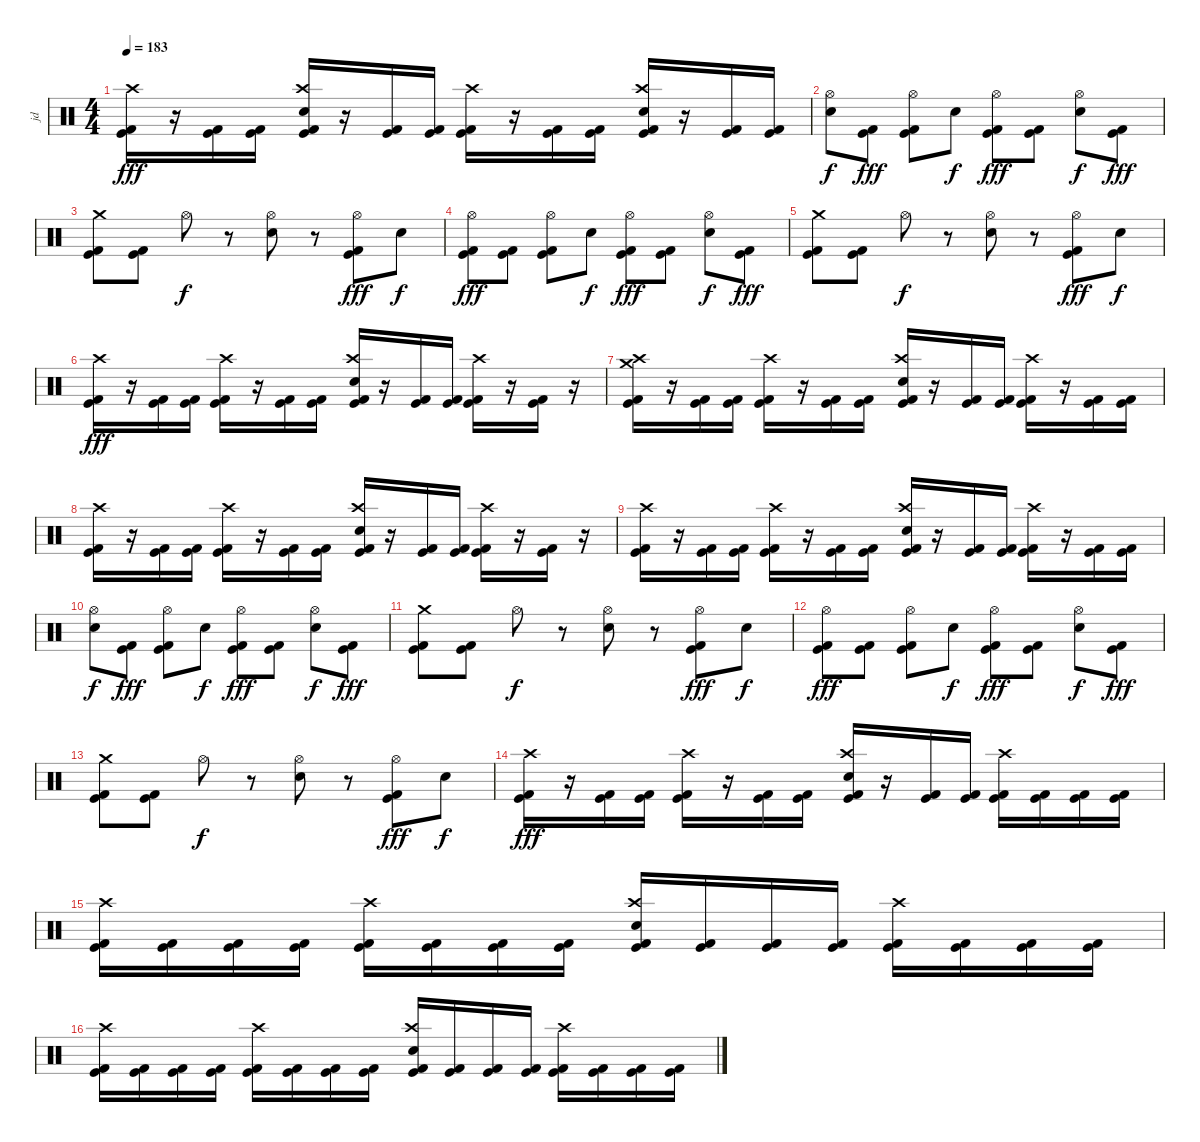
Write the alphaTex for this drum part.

\track ("jd" "jd") {instrument percussion}
\staff {score}
\articulation defaults
\ts (4 4)
\tempo 183
\clef neutral
\ks c
("Kick (hit)" "Kick (hit) 2" "Crash high (hit)").16{dy fff} r.16 ("Kick (hit)" "Kick (hit) 2").16 ("Kick (hit)" "Kick (hit) 2").16 ("Kick (hit)" "Kick (hit) 2" "Electric Snare (hit)" "Crash high (hit)").16 r.16 ("Kick (hit)" "Kick (hit) 2").16 ("Kick (hit)" "Kick (hit) 2").16 ("Kick (hit)" "Kick (hit) 2" "Crash high (hit)").16 r.16 ("Kick (hit)" "Kick (hit) 2").16 ("Kick (hit)" "Kick (hit) 2").16 ("Kick (hit)" "Kick (hit) 2" "Electric Snare (hit)" "Crash high (hit)").16 r.16 ("Kick (hit)" "Kick (hit) 2").16 ("Kick (hit)" "Kick (hit) 2").16 |
("Electric Snare (hit)" "Hi-Hat (open)").8{dy f} ("Kick (hit)" "Kick (hit) 2").8{dy fff} ("Kick (hit)" "Kick (hit) 2" "Hi-Hat (open)").8 "Electric Snare (hit)".8{dy f} ("Kick (hit)" "Kick (hit) 2" "Hi-Hat (open)").8{dy fff} ("Kick (hit)" "Kick (hit) 2").8 ("Electric Snare (hit)" "Hi-Hat (open)").8{dy f} ("Kick (hit)" "Kick (hit) 2").8{dy fff} |
("Kick (hit)" "Kick (hit) 2" "Crash medium (hit)").8 ("Kick (hit)" "Kick (hit) 2").8 "Hi-Hat (open)".8{dy f} r.8 ("Electric Snare (hit)" "Hi-Hat (open)").8 r.8 ("Kick (hit)" "Kick (hit) 2" "Hi-Hat (open)").8{dy fff} "Electric Snare (hit)".8{dy f} |
("Kick (hit)" "Kick (hit) 2" "Hi-Hat (open)").8{dy fff} ("Kick (hit)" "Kick (hit) 2").8 ("Kick (hit)" "Kick (hit) 2" "Hi-Hat (open)").8 "Electric Snare (hit)".8{dy f} ("Kick (hit)" "Kick (hit) 2" "Hi-Hat (open)").8{dy fff} ("Kick (hit)" "Kick (hit) 2").8 ("Electric Snare (hit)" "Hi-Hat (open)").8{dy f} ("Kick (hit)" "Kick (hit) 2").8{dy fff} |
("Kick (hit)" "Kick (hit) 2" "Crash medium (hit)").8 ("Kick (hit)" "Kick (hit) 2").8 "Hi-Hat (open)".8{dy f} r.8 ("Electric Snare (hit)" "Hi-Hat (open)").8 r.8 ("Kick (hit)" "Kick (hit) 2" "Hi-Hat (open)").8{dy fff} "Electric Snare (hit)".8{dy f} |
("Kick (hit)" "Kick (hit) 2" "Crash high (hit)").16{dy fff} r.16 ("Kick (hit)" "Kick (hit) 2").16 ("Kick (hit)" "Kick (hit) 2").16 ("Kick (hit)" "Kick (hit) 2" "Crash high (hit)").16 r.16 ("Kick (hit)" "Kick (hit) 2").16 ("Kick (hit)" "Kick (hit) 2").16 ("Kick (hit)" "Kick (hit) 2" "Electric Snare (hit)" "Crash high (hit)").16 r.16 ("Kick (hit)" "Kick (hit) 2").16 ("Kick (hit)" "Kick (hit) 2").16 ("Kick (hit)" "Kick (hit) 2" "Crash high (hit)").16 r.16 ("Kick (hit)" "Kick (hit) 2").16 r.16 |
("Kick (hit)" "Kick (hit) 2" "Crash medium (hit)" "Crash high (hit)").16 r.16 ("Kick (hit)" "Kick (hit) 2").16 ("Kick (hit)" "Kick (hit) 2").16 ("Kick (hit)" "Kick (hit) 2" "Crash high (hit)").16 r.16 ("Kick (hit)" "Kick (hit) 2").16 ("Kick (hit)" "Kick (hit) 2").16 ("Kick (hit)" "Kick (hit) 2" "Electric Snare (hit)" "Crash high (hit)").16 r.16 ("Kick (hit)" "Kick (hit) 2").16 ("Kick (hit)" "Kick (hit) 2").16 ("Kick (hit)" "Kick (hit) 2" "Crash high (hit)").16 r.16 ("Kick (hit)" "Kick (hit) 2").16 ("Kick (hit)" "Kick (hit) 2").16 |
("Kick (hit)" "Kick (hit) 2" "Crash high (hit)").16 r.16 ("Kick (hit)" "Kick (hit) 2").16 ("Kick (hit)" "Kick (hit) 2").16 ("Kick (hit)" "Kick (hit) 2" "Crash high (hit)").16 r.16 ("Kick (hit)" "Kick (hit) 2").16 ("Kick (hit)" "Kick (hit) 2").16 ("Kick (hit)" "Kick (hit) 2" "Electric Snare (hit)" "Crash high (hit)").16 r.16 ("Kick (hit)" "Kick (hit) 2").16 ("Kick (hit)" "Kick (hit) 2").16 ("Kick (hit)" "Kick (hit) 2" "Crash high (hit)").16 r.16 ("Kick (hit)" "Kick (hit) 2").16 r.16 |
("Kick (hit)" "Kick (hit) 2" "Crash high (hit)").16 r.16 ("Kick (hit)" "Kick (hit) 2").16 ("Kick (hit)" "Kick (hit) 2").16 ("Kick (hit)" "Kick (hit) 2" "Crash high (hit)").16 r.16 ("Kick (hit)" "Kick (hit) 2").16 ("Kick (hit)" "Kick (hit) 2").16 ("Kick (hit)" "Kick (hit) 2" "Electric Snare (hit)" "Crash high (hit)").16 r.16 ("Kick (hit)" "Kick (hit) 2").16 ("Kick (hit)" "Kick (hit) 2").16 ("Kick (hit)" "Kick (hit) 2" "Crash high (hit)").16 r.16 ("Kick (hit)" "Kick (hit) 2").16 ("Kick (hit)" "Kick (hit) 2").16 |
("Electric Snare (hit)" "Hi-Hat (open)").8{dy f} ("Kick (hit)" "Kick (hit) 2").8{dy fff} ("Kick (hit)" "Kick (hit) 2" "Hi-Hat (open)").8 "Electric Snare (hit)".8{dy f} ("Kick (hit)" "Kick (hit) 2" "Hi-Hat (open)").8{dy fff} ("Kick (hit)" "Kick (hit) 2").8 ("Electric Snare (hit)" "Hi-Hat (open)").8{dy f} ("Kick (hit)" "Kick (hit) 2").8{dy fff} |
("Kick (hit)" "Kick (hit) 2" "Crash medium (hit)").8 ("Kick (hit)" "Kick (hit) 2").8 "Hi-Hat (open)".8{dy f} r.8 ("Electric Snare (hit)" "Hi-Hat (open)").8 r.8 ("Kick (hit)" "Kick (hit) 2" "Hi-Hat (open)").8{dy fff} "Electric Snare (hit)".8{dy f} |
("Kick (hit)" "Kick (hit) 2" "Hi-Hat (open)").8{dy fff} ("Kick (hit)" "Kick (hit) 2").8 ("Kick (hit)" "Kick (hit) 2" "Hi-Hat (open)").8 "Electric Snare (hit)".8{dy f} ("Kick (hit)" "Kick (hit) 2" "Hi-Hat (open)").8{dy fff} ("Kick (hit)" "Kick (hit) 2").8 ("Electric Snare (hit)" "Hi-Hat (open)").8{dy f} ("Kick (hit)" "Kick (hit) 2").8{dy fff} |
("Kick (hit)" "Kick (hit) 2" "Crash medium (hit)").8 ("Kick (hit)" "Kick (hit) 2").8 "Hi-Hat (open)".8{dy f} r.8 ("Electric Snare (hit)" "Hi-Hat (open)").8 r.8 ("Kick (hit)" "Kick (hit) 2" "Hi-Hat (open)").8{dy fff} "Electric Snare (hit)".8{dy f} |
("Kick (hit)" "Kick (hit) 2" "Crash high (hit)").16{dy fff} r.16 ("Kick (hit)" "Kick (hit) 2").16 ("Kick (hit)" "Kick (hit) 2").16 ("Kick (hit)" "Kick (hit) 2" "Crash high (hit)").16 r.16 ("Kick (hit)" "Kick (hit) 2").16 ("Kick (hit)" "Kick (hit) 2").16 ("Kick (hit)" "Kick (hit) 2" "Electric Snare (hit)" "Crash high (hit)").16 r.16 ("Kick (hit)" "Kick (hit) 2").16 ("Kick (hit)" "Kick (hit) 2").16 ("Kick (hit)" "Kick (hit) 2" "Crash high (hit)").16 ("Kick (hit)" "Kick (hit) 2").16 ("Kick (hit)" "Kick (hit) 2").16 ("Kick (hit)" "Kick (hit) 2").16 |
("Kick (hit)" "Kick (hit) 2" "Crash high (hit)").16 ("Kick (hit)" "Kick (hit) 2").16 ("Kick (hit)" "Kick (hit) 2").16 ("Kick (hit)" "Kick (hit) 2").16 ("Kick (hit)" "Kick (hit) 2" "Crash high (hit)").16 ("Kick (hit)" "Kick (hit) 2").16 ("Kick (hit)" "Kick (hit) 2").16 ("Kick (hit)" "Kick (hit) 2").16 ("Kick (hit)" "Kick (hit) 2" "Electric Snare (hit)" "Crash high (hit)").16 ("Kick (hit)" "Kick (hit) 2").16 ("Kick (hit)" "Kick (hit) 2").16 ("Kick (hit)" "Kick (hit) 2").16 ("Kick (hit)" "Kick (hit) 2" "Crash high (hit)").16 ("Kick (hit)" "Kick (hit) 2").16 ("Kick (hit)" "Kick (hit) 2").16 ("Kick (hit)" "Kick (hit) 2").16 |
("Kick (hit)" "Kick (hit) 2" "Crash high (hit)").16 ("Kick (hit)" "Kick (hit) 2").16 ("Kick (hit)" "Kick (hit) 2").16 ("Kick (hit)" "Kick (hit) 2").16 ("Kick (hit)" "Kick (hit) 2" "Crash high (hit)").16 ("Kick (hit)" "Kick (hit) 2").16 ("Kick (hit)" "Kick (hit) 2").16 ("Kick (hit)" "Kick (hit) 2").16 ("Kick (hit)" "Kick (hit) 2" "Electric Snare (hit)" "Crash high (hit)").16 ("Kick (hit)" "Kick (hit) 2").16 ("Kick (hit)" "Kick (hit) 2").16 ("Kick (hit)" "Kick (hit) 2").16 ("Kick (hit)" "Kick (hit) 2" "Crash high (hit)").16 ("Kick (hit)" "Kick (hit) 2").16 ("Kick (hit)" "Kick (hit) 2").16 ("Kick (hit)" "Kick (hit) 2").16
